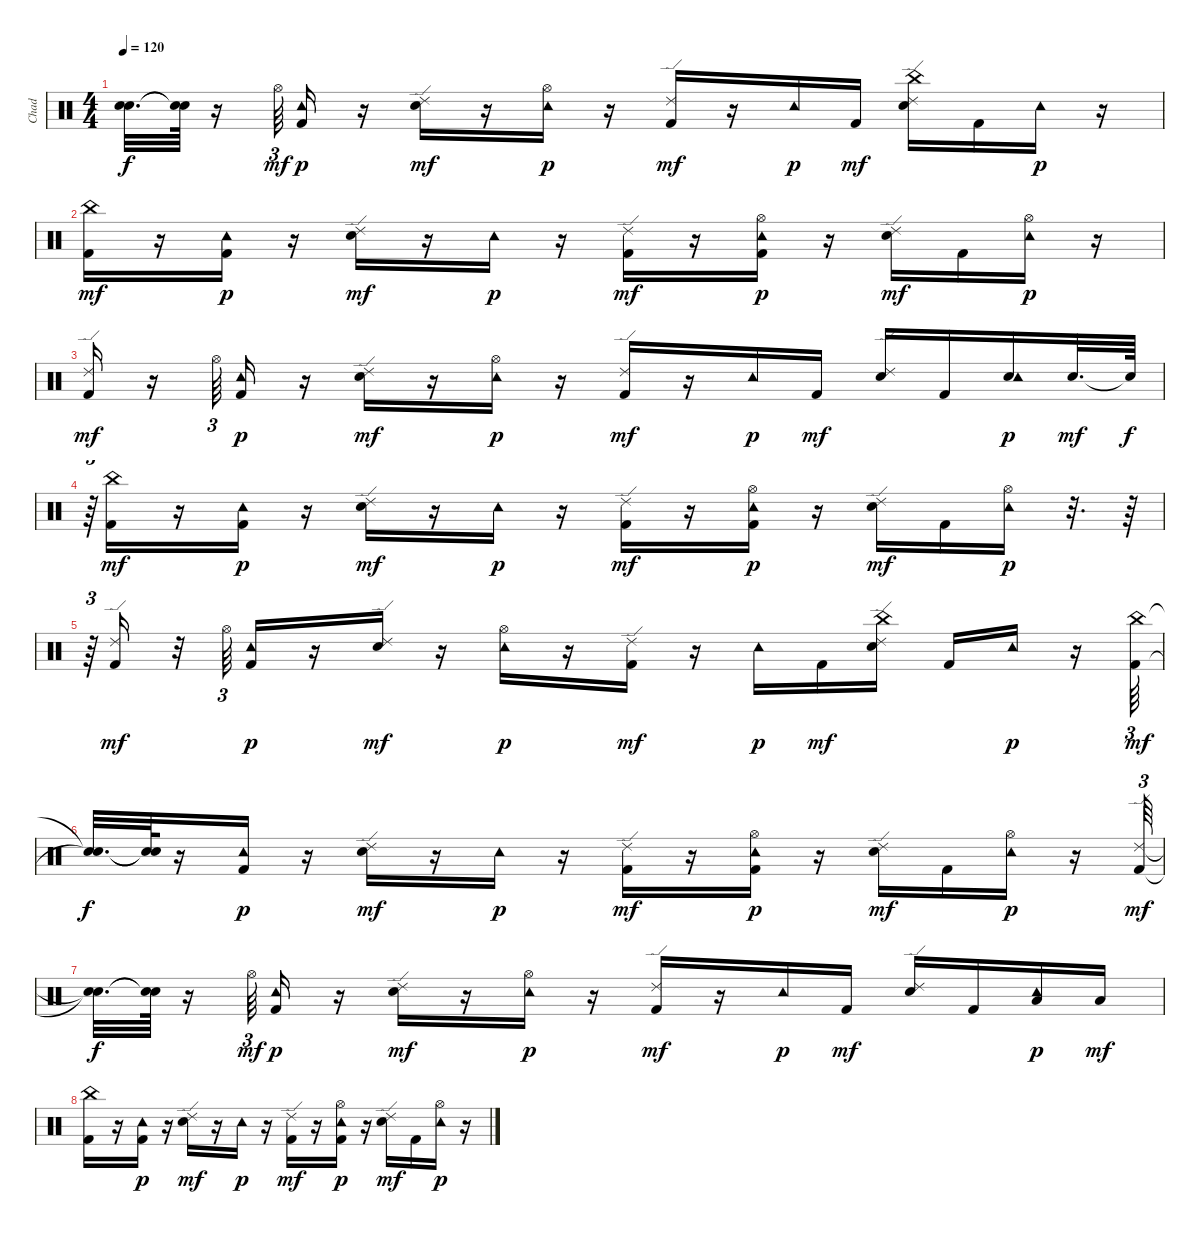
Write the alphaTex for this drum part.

\track ("Chad" "Chad") {instrument percussion}
\staff {score}
\articulation defaults
\ts (4 4)
\tempo 120
\clef neutral
\ks c
("Snare (hit)"{t} "Snare (hit)"{t}).32{d dy f} ("Snare (hit)"{t} "Snare (hit)"{t}).64 r.16 "Hi-Hat (open)".64{tu (3 2) dy mf} ("Kick (hit) 2" "Tambourine (hit)").16{dy p} r.16 ("Snare (hit) 2" "Ride (edge) 2").16{dy mf} r.16 ("Hi-Hat (open)" "Tambourine (hit)").16{dy p} r.16 ("Kick (hit) 2" "Ride (edge) 2").16{dy mf} r.16 "Tambourine (hit)".16{dy p} "Kick (hit) 2".16{dy mf} ("Snare (hit) 2" "China (hit)" "Ride (edge) 2").16 "Kick (hit) 2".16 "Tambourine (hit)".16{dy p} r.16 |
("Kick (hit) 2" "China (hit)").16{dy mf} r.16 ("Kick (hit) 2" "Tambourine (hit)").16{dy p} r.16 ("Snare (hit) 2" "Ride (edge) 2").16{dy mf} r.16 "Tambourine (hit)".16{dy p} r.16 ("Kick (hit) 2" "Ride (edge) 2").16{dy mf} r.16 ("Kick (hit) 2" "Hi-Hat (open)" "Tambourine (hit)").16{dy p} r.16 ("Snare (hit) 2" "Ride (edge) 2").16{dy mf} "Kick (hit) 2".16 ("Hi-Hat (open)" "Tambourine (hit)").16{dy p} r.16 |
("Kick (hit) 2" "Ride (edge) 2").16{dy mf} r.16 "Hi-Hat (open)".64{tu (3 2)} ("Kick (hit) 2" "Tambourine (hit)").16{dy p} r.16 ("Snare (hit) 2" "Ride (edge) 2").16{dy mf} r.16 ("Hi-Hat (open)" "Tambourine (hit)").16{dy p} r.16 ("Kick (hit) 2" "Ride (edge) 2").16{dy mf} r.16 "Tambourine (hit)".16{dy p} "Kick (hit) 2".16{dy mf} ("Snare (hit) 2" "Ride (edge) 2").16 "Kick (hit) 2".16 ("Snare (hit) 2" "Tambourine (hit)").16{dy p} "Snare (hit) 2".32{d dy mf} "Snare (hit)"{t}.64{dy f} |
r.64{tu (3 2)} ("Kick (hit) 2" "China (hit)").16{dy mf} r.16 ("Kick (hit) 2" "Tambourine (hit)").16{dy p} r.16 ("Snare (hit) 2" "Ride (edge) 2").16{dy mf} r.16 "Tambourine (hit)".16{dy p} r.16 ("Kick (hit) 2" "Ride (edge) 2").16{dy mf} r.16 ("Kick (hit) 2" "Hi-Hat (open)" "Tambourine (hit)").16{dy p} r.16 ("Snare (hit) 2" "Ride (edge) 2").16{dy mf} "Kick (hit) 2".16 ("Hi-Hat (open)" "Tambourine (hit)").16{dy p} r.32{d} r.64 |
r.64{tu (3 2)} ("Kick (hit) 2" "Ride (edge) 2").16{dy mf} r.32 "Hi-Hat (open)".64{tu (3 2)} ("Kick (hit) 2" "Tambourine (hit)").16{dy p} r.16 ("Snare (hit) 2" "Ride (edge) 2").16{dy mf} r.16 ("Hi-Hat (open)" "Tambourine (hit)").16{dy p} r.16 ("Kick (hit) 2" "Ride (edge) 2").16{dy mf} r.16 "Tambourine (hit)".16{dy p} "Kick (hit) 2".16{dy mf} ("Snare (hit) 2" "China (hit)" "Ride (edge) 2").16 "Kick (hit) 2".16 "Tambourine (hit)".16{dy p} r.16 ("Kick (hit) 2" "China (hit)").64{tu (3 2) dy mf} |
("Snare (hit)"{t} "Snare (hit)"{t}).32{d dy f} ("Snare (hit)"{t} "Snare (hit)"{t}).64 r.16 ("Kick (hit) 2" "Tambourine (hit)").16{dy p} r.16 ("Snare (hit) 2" "Ride (edge) 2").16{dy mf} r.16 "Tambourine (hit)".16{dy p} r.16 ("Kick (hit) 2" "Ride (edge) 2").16{dy mf} r.16 ("Kick (hit) 2" "Hi-Hat (open)" "Tambourine (hit)").16{dy p} r.16 ("Snare (hit) 2" "Ride (edge) 2").16{dy mf} "Kick (hit) 2".16 ("Hi-Hat (open)" "Tambourine (hit)").16{dy p} r.16 ("Kick (hit) 2" "Ride (edge) 2").64{tu (3 2) dy mf} |
("Snare (hit)"{t} "Snare (hit)"{t}).32{d dy f} ("Snare (hit)"{t} "Snare (hit)"{t}).64 r.16 "Hi-Hat (open)".64{tu (3 2) dy mf} ("Kick (hit) 2" "Tambourine (hit)").16{dy p} r.16 ("Snare (hit) 2" "Ride (edge) 2").16{dy mf} r.16 ("Hi-Hat (open)" "Tambourine (hit)").16{dy p} r.16 ("Kick (hit) 2" "Ride (edge) 2").16{dy mf} r.16 "Tambourine (hit)".16{dy p} "Kick (hit) 2".16{dy mf} ("Snare (hit) 2" "Ride (edge) 2").16 "Kick (hit) 2".16 ("Low Floor Tom (hit)" "Tambourine (hit)").16{dy p} "Low Floor Tom (hit)".16{dy mf} |
("Kick (hit) 2" "China (hit)").16 r.16 ("Kick (hit) 2" "Tambourine (hit)").16{dy p} r.16 ("Snare (hit) 2" "Ride (edge) 2").16{dy mf} r.16 "Tambourine (hit)".16{dy p} r.16 ("Kick (hit) 2" "Ride (edge) 2").16{dy mf} r.16 ("Kick (hit) 2" "Hi-Hat (open)" "Tambourine (hit)").16{dy p} r.16 ("Snare (hit) 2" "Ride (edge) 2").16{dy mf} "Kick (hit) 2".16 ("Hi-Hat (open)" "Tambourine (hit)").16{dy p} r.16
